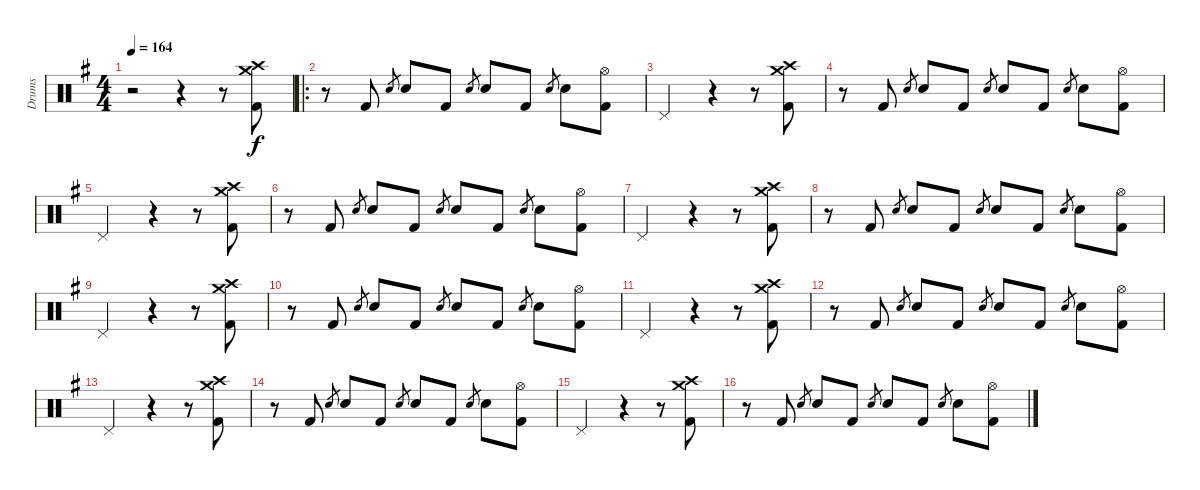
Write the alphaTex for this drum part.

\track ("Drums" "Drums") {instrument percussion}
\staff
\articulation defaults
\ts (4 4)
\tempo 164
\clef neutral
\ks g
r.2{dy f} r.4 r.8 ("Crash high (hit)" "Crash medium (hit)" "Kick (hit) 2").8 |
\ro
r.8 "Kick (hit) 2".8 "Snare (hit) 2".8{gr} "Snare (hit) 2".8 "Kick (hit) 2".8 "Snare (hit) 2".8{gr} "Snare (hit) 2".8 "Kick (hit) 2".8 "Snare (hit) 2".8{gr} "Snare (hit) 2".8 ("Hi-Hat (open)" "Kick (hit) 2").8 |
"Pedal Hi-Hat (hit)".2 r.4 r.8 ("Crash high (hit)" "Crash medium (hit)" "Kick (hit) 2").8 |
r.8 "Kick (hit) 2".8 "Snare (hit) 2".8{gr} "Snare (hit) 2".8 "Kick (hit) 2".8 "Snare (hit) 2".8{gr} "Snare (hit) 2".8 "Kick (hit) 2".8 "Snare (hit) 2".8{gr} "Snare (hit) 2".8 ("Hi-Hat (open)" "Kick (hit) 2").8 |
"Pedal Hi-Hat (hit)".2 r.4 r.8 ("Crash high (hit)" "Crash medium (hit)" "Kick (hit) 2").8 |
r.8 "Kick (hit) 2".8 "Snare (hit) 2".8{gr} "Snare (hit) 2".8 "Kick (hit) 2".8 "Snare (hit) 2".8{gr} "Snare (hit) 2".8 "Kick (hit) 2".8 "Snare (hit) 2".8{gr} "Snare (hit) 2".8 ("Hi-Hat (open)" "Kick (hit) 2").8 |
"Pedal Hi-Hat (hit)".2 r.4 r.8 ("Crash high (hit)" "Crash medium (hit)" "Kick (hit) 2").8 |
r.8 "Kick (hit) 2".8 "Snare (hit) 2".8{gr} "Snare (hit) 2".8 "Kick (hit) 2".8 "Snare (hit) 2".8{gr} "Snare (hit) 2".8 "Kick (hit) 2".8 "Snare (hit) 2".8{gr} "Snare (hit) 2".8 ("Hi-Hat (open)" "Kick (hit) 2").8 |
"Pedal Hi-Hat (hit)".2 r.4 r.8 ("Crash high (hit)" "Crash medium (hit)" "Kick (hit) 2").8 |
r.8 "Kick (hit) 2".8 "Snare (hit) 2".8{gr} "Snare (hit) 2".8 "Kick (hit) 2".8 "Snare (hit) 2".8{gr} "Snare (hit) 2".8 "Kick (hit) 2".8 "Snare (hit) 2".8{gr} "Snare (hit) 2".8 ("Hi-Hat (open)" "Kick (hit) 2").8 |
"Pedal Hi-Hat (hit)".2 r.4 r.8 ("Crash high (hit)" "Crash medium (hit)" "Kick (hit) 2").8 |
r.8 "Kick (hit) 2".8 "Snare (hit) 2".8{gr} "Snare (hit) 2".8 "Kick (hit) 2".8 "Snare (hit) 2".8{gr} "Snare (hit) 2".8 "Kick (hit) 2".8 "Snare (hit) 2".8{gr} "Snare (hit) 2".8 ("Hi-Hat (open)" "Kick (hit) 2").8 |
"Pedal Hi-Hat (hit)".2 r.4 r.8 ("Crash high (hit)" "Crash medium (hit)" "Kick (hit) 2").8 |
r.8 "Kick (hit) 2".8 "Snare (hit) 2".8{gr} "Snare (hit) 2".8 "Kick (hit) 2".8 "Snare (hit) 2".8{gr} "Snare (hit) 2".8 "Kick (hit) 2".8 "Snare (hit) 2".8{gr} "Snare (hit) 2".8 ("Hi-Hat (open)" "Kick (hit) 2").8 |
"Pedal Hi-Hat (hit)".2 r.4 r.8 ("Crash high (hit)" "Crash medium (hit)" "Kick (hit) 2").8 |
r.8 "Kick (hit) 2".8 "Snare (hit) 2".8{gr} "Snare (hit) 2".8 "Kick (hit) 2".8 "Snare (hit) 2".8{gr} "Snare (hit) 2".8 "Kick (hit) 2".8 "Snare (hit) 2".8{gr} "Snare (hit) 2".8 ("Hi-Hat (open)" "Kick (hit) 2").8
